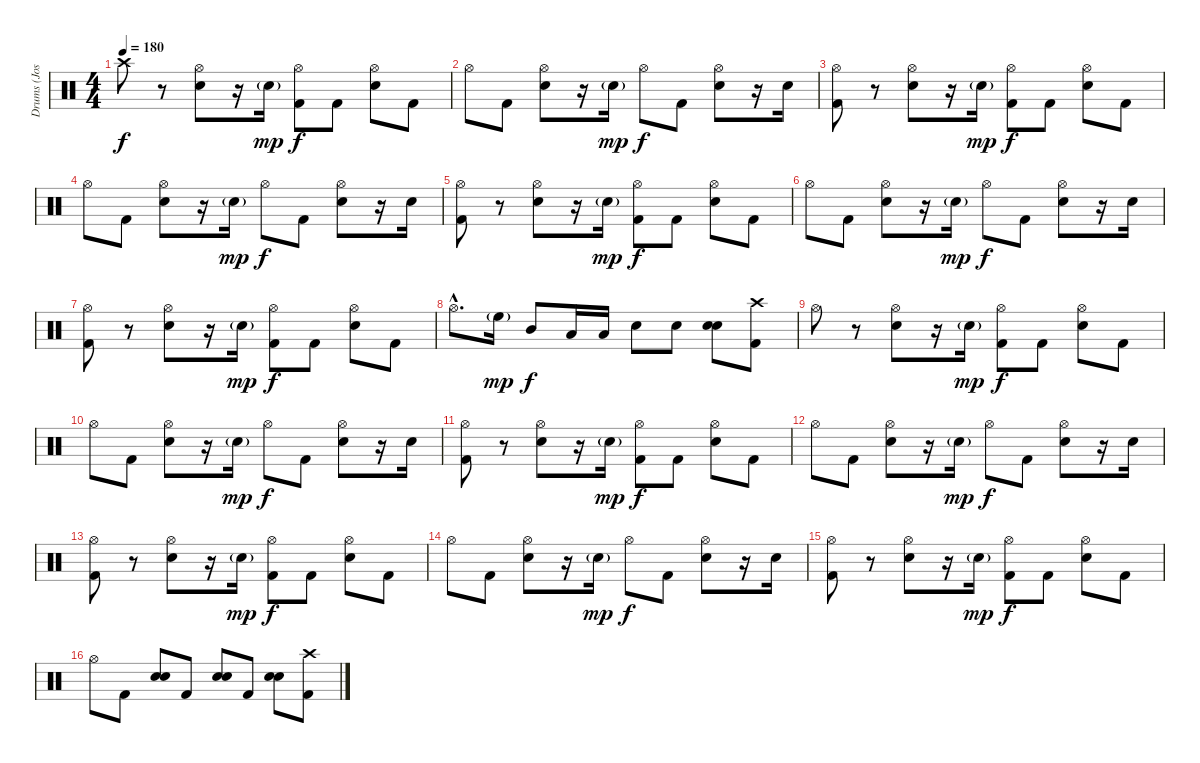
\track ("Drums (Jose Pasilas II)" "Drums (Jos") {instrument percussion}
\staff {score}
\articulation defaults
\ts (4 4)
\tempo 180
\clef neutral
\ks c "Crash high (hit)"{t}.8{dy f}
r.8 ("Hi-Hat (open)" "Snare (hit) 2").8 r.16 "Snare (hit) 2"{g}.16{dy mp} ("Kick (hit) 2" "Hi-Hat (open)").8{dy f} "Kick (hit) 2".8 ("Snare (hit) 2" "Hi-Hat (open)").8 "Kick (hit) 2".8 |
"Hi-Hat (open)".8 "Kick (hit) 2".8 ("Snare (hit) 2" "Hi-Hat (open)").8 r.16 "Snare (hit) 2"{g}.16{dy mp} "Hi-Hat (open)".8{dy f} "Kick (hit) 2".8 ("Snare (hit) 2" "Hi-Hat (open)").8 r.16 "Snare (hit) 2".16 |
("Hi-Hat (open)" "Kick (hit) 2").8 r.8 ("Hi-Hat (open)" "Snare (hit) 2").8 r.16 "Snare (hit) 2"{g}.16{dy mp} ("Kick (hit) 2" "Hi-Hat (open)").8{dy f} "Kick (hit) 2".8 ("Snare (hit) 2" "Hi-Hat (open)").8 "Kick (hit) 2".8 |
"Hi-Hat (open)".8 "Kick (hit) 2".8 ("Snare (hit) 2" "Hi-Hat (open)").8 r.16 "Snare (hit) 2"{g}.16{dy mp} "Hi-Hat (open)".8{dy f} "Kick (hit) 2".8 ("Snare (hit) 2" "Hi-Hat (open)").8 r.16 "Snare (hit) 2".16 |
("Hi-Hat (open)" "Kick (hit) 2").8 r.8 ("Hi-Hat (open)" "Snare (hit) 2").8 r.16 "Snare (hit) 2"{g}.16{dy mp} ("Kick (hit) 2" "Hi-Hat (open)").8{dy f} "Kick (hit) 2".8 ("Snare (hit) 2" "Hi-Hat (open)").8 "Kick (hit) 2".8 |
"Hi-Hat (open)".8 "Kick (hit) 2".8 ("Snare (hit) 2" "Hi-Hat (open)").8 r.16 "Snare (hit) 2"{g}.16{dy mp} "Hi-Hat (open)".8{dy f} "Kick (hit) 2".8 ("Snare (hit) 2" "Hi-Hat (open)").8 r.16 "Snare (hit) 2".16 |
("Hi-Hat (open)" "Kick (hit) 2").8 r.8 ("Hi-Hat (open)" "Snare (hit) 2").8 r.16 "Snare (hit) 2"{g}.16{dy mp} ("Kick (hit) 2" "Hi-Hat (open)").8{dy f} "Kick (hit) 2".8 ("Snare (hit) 2" "Hi-Hat (open)").8 "Kick (hit) 2".8 |
"Hi-Hat (open)"{hac}.8{d} "High Floor Tom (hit)"{g}.16{dy mp} "Mid Tom (hit)".8{dy f} "Low Tom (hit)".16 "Low Floor Tom (hit)".16 "Snare (hit) 2".8 "Snare (hit) 2".8 ("Snare (hit) 2" "Snare (hit) 2").8{bd 240} ("Kick (hit) 2" "Crash high (hit)").8 |
"Hi-Hat (open)".8 r.8 ("Hi-Hat (open)" "Snare (hit) 2").8 r.16 "Snare (hit) 2"{g}.16{dy mp} ("Kick (hit) 2" "Hi-Hat (open)").8{dy f} "Kick (hit) 2".8 ("Snare (hit) 2" "Hi-Hat (open)").8 "Kick (hit) 2".8 |
"Hi-Hat (open)".8 "Kick (hit) 2".8 ("Snare (hit) 2" "Hi-Hat (open)").8 r.16 "Snare (hit) 2"{g}.16{dy mp} "Hi-Hat (open)".8{dy f} "Kick (hit) 2".8 ("Snare (hit) 2" "Hi-Hat (open)").8 r.16 "Snare (hit) 2".16 |
("Hi-Hat (open)" "Kick (hit) 2").8 r.8 ("Hi-Hat (open)" "Snare (hit) 2").8 r.16 "Snare (hit) 2"{g}.16{dy mp} ("Kick (hit) 2" "Hi-Hat (open)").8{dy f} "Kick (hit) 2".8 ("Snare (hit) 2" "Hi-Hat (open)").8 "Kick (hit) 2".8 |
"Hi-Hat (open)".8 "Kick (hit) 2".8 ("Snare (hit) 2" "Hi-Hat (open)").8 r.16 "Snare (hit) 2"{g}.16{dy mp} "Hi-Hat (open)".8{dy f} "Kick (hit) 2".8 ("Snare (hit) 2" "Hi-Hat (open)").8 r.16 "Snare (hit) 2".16 |
("Hi-Hat (open)" "Kick (hit) 2").8 r.8 ("Hi-Hat (open)" "Snare (hit) 2").8 r.16 "Snare (hit) 2"{g}.16{dy mp} ("Kick (hit) 2" "Hi-Hat (open)").8{dy f} "Kick (hit) 2".8 ("Snare (hit) 2" "Hi-Hat (open)").8 "Kick (hit) 2".8 |
"Hi-Hat (open)".8 "Kick (hit) 2".8 ("Snare (hit) 2" "Hi-Hat (open)").8 r.16 "Snare (hit) 2"{g}.16{dy mp} "Hi-Hat (open)".8{dy f} "Kick (hit) 2".8 ("Snare (hit) 2" "Hi-Hat (open)").8 r.16 "Snare (hit) 2".16 |
("Hi-Hat (open)" "Kick (hit) 2").8 r.8 ("Hi-Hat (open)" "Snare (hit) 2").8 r.16 "Snare (hit) 2"{g}.16{dy mp} ("Kick (hit) 2" "Hi-Hat (open)").8{dy f} "Kick (hit) 2".8 ("Snare (hit) 2" "Hi-Hat (open)").8 "Kick (hit) 2".8 |
"Hi-Hat (open)".8 "Kick (hit) 2".8 ("Snare (hit) 2" "Snare (hit) 2").8{bu 240} "Kick (hit) 2".8 ("Snare (hit) 2" "Snare (hit) 2").8{bu 240} "Kick (hit) 2".8 ("Snare (hit) 2" "Snare (hit) 2").8{bu 240} ("Kick (hit) 2" "Crash high (hit)").8
